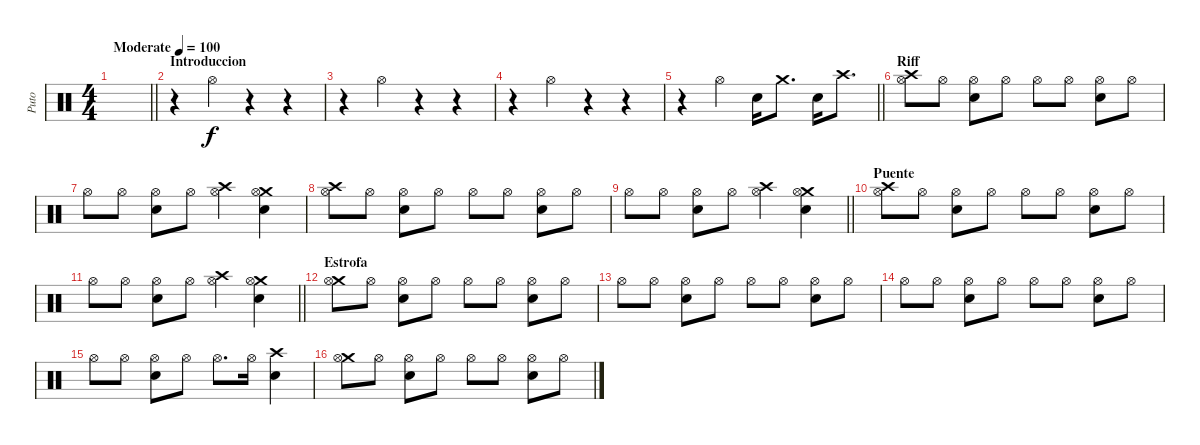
\track ("Puto" "Puto") {instrument percussion}
\staff {score}
\articulation defaults
\ts (4 4)
\tempo (100 "Moderate")
\clef neutral
\barLineRight lightlight
\ks c
|
\section ("" "Introduccion")
r.4 "Hi-Hat (open)".4 r.4 r.4 |
r.4 "Hi-Hat (open)".4 r.4 r.4 |
r.4 "Hi-Hat (open)".4 r.4 r.4 |
\barLineRight lightlight
r.4 "Hi-Hat (open)".4 "Snare (hit) 2".16 "Crash medium (hit)".8{d} "Snare (hit) 2".16 "Crash high (hit)".8{d} |
\section ("" "Riff")
("Crash high (hit)" "Hi-Hat (open)").8 "Hi-Hat (open)".8 ("Snare (hit) 2" "Hi-Hat (open)").8 "Hi-Hat (open)".8 "Hi-Hat (open)".8 "Hi-Hat (open)".8 ("Snare (hit) 2" "Hi-Hat (open)").8 "Hi-Hat (open)".8 |
"Hi-Hat (open)".8 "Hi-Hat (open)".8 ("Snare (hit) 2" "Hi-Hat (open)").8 "Hi-Hat (open)".8 ("Crash high (hit)" "Hi-Hat (open)").4 ("Crash medium (hit)" "Snare (hit) 2" "Hi-Hat (open)").4 |
("Crash high (hit)" "Hi-Hat (open)").8 "Hi-Hat (open)".8 ("Snare (hit) 2" "Hi-Hat (open)").8 "Hi-Hat (open)".8 "Hi-Hat (open)".8 "Hi-Hat (open)".8 ("Snare (hit) 2" "Hi-Hat (open)").8 "Hi-Hat (open)".8 |
\barLineRight lightlight "Hi-Hat (open)".8 "Hi-Hat (open)".8
("Snare (hit) 2" "Hi-Hat (open)").8 "Hi-Hat (open)".8 ("Crash high (hit)" "Hi-Hat (open)").4 ("Crash medium (hit)" "Snare (hit) 2" "Hi-Hat (open)").4 |
\section ("" "Puente")
("Crash high (hit)" "Hi-Hat (open)").8 "Hi-Hat (open)".8 ("Snare (hit) 2" "Hi-Hat (open)").8 "Hi-Hat (open)".8 "Hi-Hat (open)".8 "Hi-Hat (open)".8 ("Snare (hit) 2" "Hi-Hat (open)").8 "Hi-Hat (open)".8 |
\barLineRight lightlight "Hi-Hat (open)".8 "Hi-Hat (open)".8
("Snare (hit) 2" "Hi-Hat (open)").8 "Hi-Hat (open)".8 ("Crash high (hit)" "Hi-Hat (open)").4 ("Crash medium (hit)" "Snare (hit) 2" "Hi-Hat (open)").4 |
\section ("" "Estrofa")
("Crash medium (hit)" "Hi-Hat (open)").8 "Hi-Hat (open)".8 ("Snare (hit) 2" "Hi-Hat (open)").8 "Hi-Hat (open)".8 "Hi-Hat (open)".8 "Hi-Hat (open)".8 ("Snare (hit) 2" "Hi-Hat (open)").8 "Hi-Hat (open)".8 |
"Hi-Hat (open)".8 "Hi-Hat (open)".8 ("Snare (hit) 2" "Hi-Hat (open)").8 "Hi-Hat (open)".8 "Hi-Hat (open)".8 "Hi-Hat (open)".8 ("Snare (hit) 2" "Hi-Hat (open)").8 "Hi-Hat (open)".8 |
"Hi-Hat (open)".8 "Hi-Hat (open)".8 ("Snare (hit) 2" "Hi-Hat (open)").8 "Hi-Hat (open)".8 "Hi-Hat (open)".8 "Hi-Hat (open)".8 ("Snare (hit) 2" "Hi-Hat (open)").8 "Hi-Hat (open)".8 |
"Hi-Hat (open)".8 "Hi-Hat (open)".8 ("Snare (hit) 2" "Hi-Hat (open)").8 "Hi-Hat (open)".8 "Hi-Hat (open)".8{d} "Hi-Hat (open)".16 ("Crash high (hit)" "Snare (hit) 2").4 |
("Crash medium (hit)" "Hi-Hat (open)").8 "Hi-Hat (open)".8 ("Snare (hit) 2" "Hi-Hat (open)").8 "Hi-Hat (open)".8 "Hi-Hat (open)".8 "Hi-Hat (open)".8 ("Snare (hit) 2" "Hi-Hat (open)").8 "Hi-Hat (open)".8
